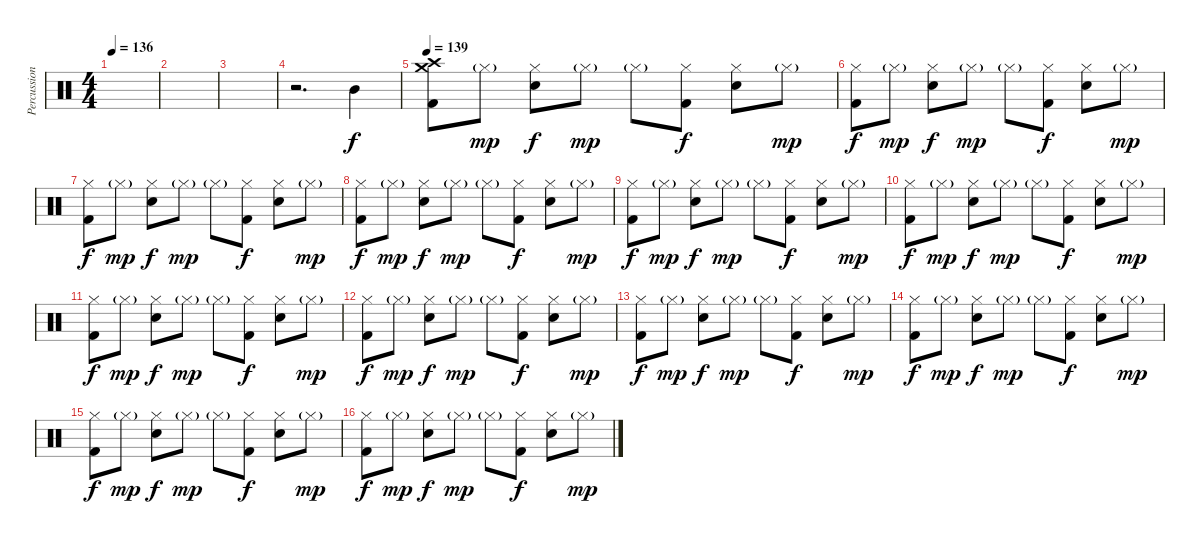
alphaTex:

\track ("Percussion" "Percussion") {instrument percussion}
\staff {score}
\articulation defaults
\ts (4 4)
\tempo 136
\clef neutral
\ks c
|
|
|
r.2{d} "Mid Tom (hit)".4{dy f} |
\tempo 139
("Crash high (hit)" "Crash medium (hit)" "Kick (hit) 2").8 "Hi-Hat (closed)"{g}.8{dy mp} ("Hi-Hat (closed)" "Snare (hit) 2").8{dy f} "Hi-Hat (closed)"{g}.8{dy mp} "Hi-Hat (closed)"{g}.8 ("Hi-Hat (closed)" "Kick (hit) 2").8{dy f} ("Hi-Hat (closed)" "Snare (hit) 2").8 "Hi-Hat (closed)"{g}.8{dy mp} |
("Hi-Hat (closed)" "Kick (hit) 2").8{dy f} "Hi-Hat (closed)"{g}.8{dy mp} ("Hi-Hat (closed)" "Snare (hit) 2").8{dy f} "Hi-Hat (closed)"{g}.8{dy mp} "Hi-Hat (closed)"{g}.8 ("Hi-Hat (closed)" "Kick (hit) 2").8{dy f} ("Hi-Hat (closed)" "Snare (hit) 2").8 "Hi-Hat (closed)"{g}.8{dy mp} |
("Hi-Hat (closed)" "Kick (hit) 2").8{dy f} "Hi-Hat (closed)"{g}.8{dy mp} ("Hi-Hat (closed)" "Snare (hit) 2").8{dy f} "Hi-Hat (closed)"{g}.8{dy mp} "Hi-Hat (closed)"{g}.8 ("Hi-Hat (closed)" "Kick (hit) 2").8{dy f} ("Hi-Hat (closed)" "Snare (hit) 2").8 "Hi-Hat (closed)"{g}.8{dy mp} |
("Hi-Hat (closed)" "Kick (hit) 2").8{dy f} "Hi-Hat (closed)"{g}.8{dy mp} ("Hi-Hat (closed)" "Snare (hit) 2").8{dy f} "Hi-Hat (closed)"{g}.8{dy mp} "Hi-Hat (closed)"{g}.8 ("Hi-Hat (closed)" "Kick (hit) 2").8{dy f} ("Hi-Hat (closed)" "Snare (hit) 2").8 "Hi-Hat (closed)"{g}.8{dy mp} |
("Hi-Hat (closed)" "Kick (hit) 2").8{dy f} "Hi-Hat (closed)"{g}.8{dy mp} ("Hi-Hat (closed)" "Snare (hit) 2").8{dy f} "Hi-Hat (closed)"{g}.8{dy mp} "Hi-Hat (closed)"{g}.8 ("Hi-Hat (closed)" "Kick (hit) 2").8{dy f} ("Hi-Hat (closed)" "Snare (hit) 2").8 "Hi-Hat (closed)"{g}.8{dy mp} |
("Hi-Hat (closed)" "Kick (hit) 2").8{dy f} "Hi-Hat (closed)"{g}.8{dy mp} ("Hi-Hat (closed)" "Snare (hit) 2").8{dy f} "Hi-Hat (closed)"{g}.8{dy mp} "Hi-Hat (closed)"{g}.8 ("Hi-Hat (closed)" "Kick (hit) 2").8{dy f} ("Hi-Hat (closed)" "Snare (hit) 2").8 "Hi-Hat (closed)"{g}.8{dy mp} |
("Hi-Hat (closed)" "Kick (hit) 2").8{dy f} "Hi-Hat (closed)"{g}.8{dy mp} ("Hi-Hat (closed)" "Snare (hit) 2").8{dy f} "Hi-Hat (closed)"{g}.8{dy mp} "Hi-Hat (closed)"{g}.8 ("Hi-Hat (closed)" "Kick (hit) 2").8{dy f} ("Hi-Hat (closed)" "Snare (hit) 2").8 "Hi-Hat (closed)"{g}.8{dy mp} |
("Hi-Hat (closed)" "Kick (hit) 2").8{dy f} "Hi-Hat (closed)"{g}.8{dy mp} ("Hi-Hat (closed)" "Snare (hit) 2").8{dy f} "Hi-Hat (closed)"{g}.8{dy mp} "Hi-Hat (closed)"{g}.8 ("Hi-Hat (closed)" "Kick (hit) 2").8{dy f} ("Hi-Hat (closed)" "Snare (hit) 2").8 "Hi-Hat (closed)"{g}.8{dy mp} |
("Hi-Hat (closed)" "Kick (hit) 2").8{dy f} "Hi-Hat (closed)"{g}.8{dy mp} ("Hi-Hat (closed)" "Snare (hit) 2").8{dy f} "Hi-Hat (closed)"{g}.8{dy mp} "Hi-Hat (closed)"{g}.8 ("Hi-Hat (closed)" "Kick (hit) 2").8{dy f} ("Hi-Hat (closed)" "Snare (hit) 2").8 "Hi-Hat (closed)"{g}.8{dy mp} |
("Hi-Hat (closed)" "Kick (hit) 2").8{dy f} "Hi-Hat (closed)"{g}.8{dy mp} ("Hi-Hat (closed)" "Snare (hit) 2").8{dy f} "Hi-Hat (closed)"{g}.8{dy mp} "Hi-Hat (closed)"{g}.8 ("Hi-Hat (closed)" "Kick (hit) 2").8{dy f} ("Hi-Hat (closed)" "Snare (hit) 2").8 "Hi-Hat (closed)"{g}.8{dy mp} |
("Hi-Hat (closed)" "Kick (hit) 2").8{dy f} "Hi-Hat (closed)"{g}.8{dy mp} ("Hi-Hat (closed)" "Snare (hit) 2").8{dy f} "Hi-Hat (closed)"{g}.8{dy mp} "Hi-Hat (closed)"{g}.8 ("Hi-Hat (closed)" "Kick (hit) 2").8{dy f} ("Hi-Hat (closed)" "Snare (hit) 2").8 "Hi-Hat (closed)"{g}.8{dy mp} |
("Hi-Hat (closed)" "Kick (hit) 2").8{dy f} "Hi-Hat (closed)"{g}.8{dy mp} ("Hi-Hat (closed)" "Snare (hit) 2").8{dy f} "Hi-Hat (closed)"{g}.8{dy mp} "Hi-Hat (closed)"{g}.8 ("Hi-Hat (closed)" "Kick (hit) 2").8{dy f} ("Hi-Hat (closed)" "Snare (hit) 2").8 "Hi-Hat (closed)"{g}.8{dy mp}
